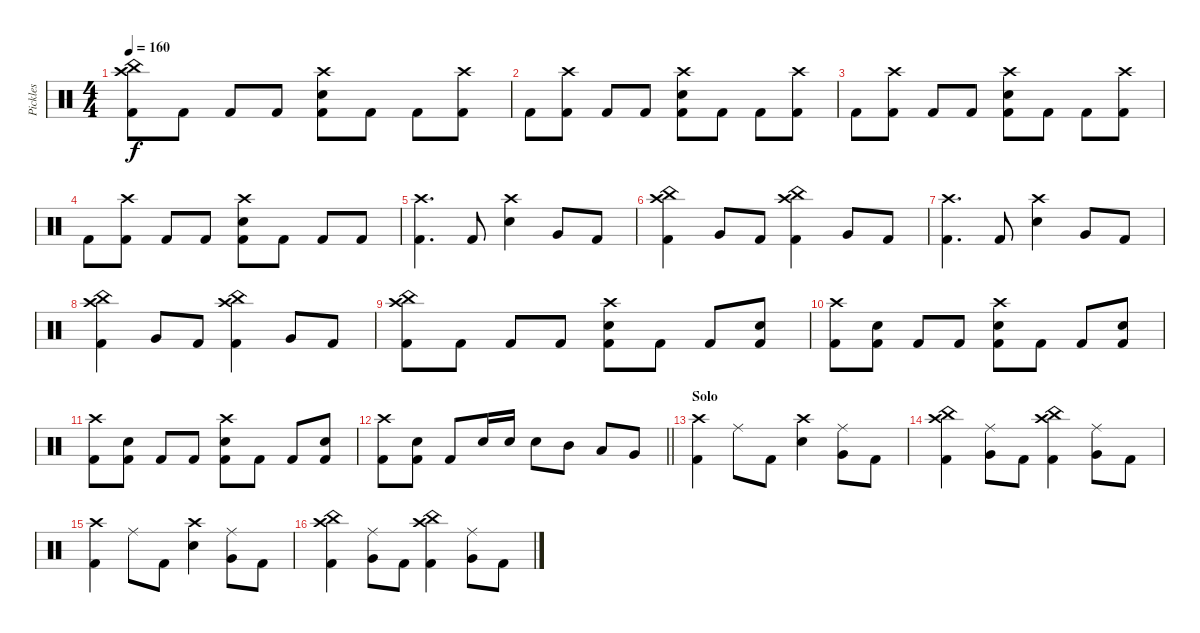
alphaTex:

\track ("Pickles" "Pickles") {instrument percussion}
\staff {score}
\articulation defaults
\ts (4 4)
\tempo 160
\clef neutral
\ks c
("Crash high (hit)" "China (hit)" "Kick (hit) 2").8{dy f} "Kick (hit) 2".8 "Kick (hit) 2".8 "Kick (hit) 2".8 ("Crash high (hit)" "Electric Snare (hit)" "Kick (hit) 2").8 "Kick (hit) 2".8 "Kick (hit) 2".8 ("Crash high (hit)" "Kick (hit) 2").8 |
"Kick (hit) 2".8 ("Crash high (hit)" "Kick (hit) 2").8 "Kick (hit) 2".8 "Kick (hit) 2".8 ("Crash high (hit)" "Electric Snare (hit)" "Kick (hit) 2").8 "Kick (hit) 2".8 "Kick (hit) 2".8 ("Crash high (hit)" "Kick (hit) 2").8 |
"Kick (hit) 2".8 ("Crash high (hit)" "Kick (hit) 2").8 "Kick (hit) 2".8 "Kick (hit) 2".8 ("Crash high (hit)" "Electric Snare (hit)" "Kick (hit) 2").8 "Kick (hit) 2".8 "Kick (hit) 2".8 ("Crash high (hit)" "Kick (hit) 2").8 |
"Kick (hit) 2".8 ("Crash high (hit)" "Kick (hit) 2").8 "Kick (hit) 2".8 "Kick (hit) 2".8 ("Crash high (hit)" "Electric Snare (hit)" "Kick (hit) 2").8 "Kick (hit) 2".8 "Kick (hit) 2".8 "Kick (hit) 2".8 |
("Crash high (hit)" "Kick (hit) 2").4{d} "Kick (hit) 2".8 ("Crash high (hit)" "Electric Snare (hit)").4 "Very Low Tom (hit)".8 "Kick (hit) 2".8 |
("Crash high (hit)" "China (hit)" "Kick (hit) 2").4 "Very Low Tom (hit)".8 "Kick (hit) 2".8 ("Crash high (hit)" "China (hit)" "Kick (hit) 2").4 "Very Low Tom (hit)".8 "Kick (hit) 2".8 |
("Crash high (hit)" "Kick (hit) 2").4{d} "Kick (hit) 2".8 ("Crash high (hit)" "Electric Snare (hit)").4 "Very Low Tom (hit)".8 "Kick (hit) 2".8 |
("Crash high (hit)" "China (hit)" "Kick (hit) 2").4 "Very Low Tom (hit)".8 "Kick (hit) 2".8 ("Crash high (hit)" "China (hit)" "Kick (hit) 2").4 "Very Low Tom (hit)".8 "Kick (hit) 2".8 |
("Crash high (hit)" "China (hit)" "Kick (hit) 2").8 "Kick (hit) 2".8 "Kick (hit) 2".8 "Kick (hit) 2".8 ("Crash high (hit)" "Electric Snare (hit)" "Kick (hit) 2").8 "Kick (hit) 2".8 "Kick (hit) 2".8 ("Electric Snare (hit)" "Kick (hit) 2").8 |
("Crash high (hit)" "Kick (hit) 2").8 ("Electric Snare (hit)" "Kick (hit) 2").8 "Kick (hit) 2".8 "Kick (hit) 2".8 ("Crash high (hit)" "Electric Snare (hit)" "Kick (hit) 2").8 "Kick (hit) 2".8 "Kick (hit) 2".8 ("Electric Snare (hit)" "Kick (hit) 2").8 |
("Crash high (hit)" "Kick (hit) 2").8 ("Electric Snare (hit)" "Kick (hit) 2").8 "Kick (hit) 2".8 "Kick (hit) 2".8 ("Crash high (hit)" "Electric Snare (hit)" "Kick (hit) 2").8 "Kick (hit) 2".8 "Kick (hit) 2".8 ("Electric Snare (hit)" "Kick (hit) 2").8 |
\barLineRight lightlight
("Crash high (hit)" "Kick (hit) 2").8 ("Electric Snare (hit)" "Kick (hit) 2").8 "Kick (hit) 2".8 "Electric Snare (hit)".16 "Electric Snare (hit)".16 "Electric Snare (hit)".8 "Mid Tom (hit)".8 "Low Tom (hit)".8 "Very Low Tom (hit)".8 |
\section ("" "Solo")
("Crash high (hit)" "Kick (hit) 2").4 "Ride (middle)".8 "Kick (hit) 2".8 ("Crash high (hit)" "Electric Snare (hit)").4 ("Ride (middle)" "Very Low Tom (hit)").8 "Kick (hit) 2".8 |
("Crash high (hit)" "China (hit)" "Kick (hit) 2").4 ("Ride (middle)" "Very Low Tom (hit)").8 "Kick (hit) 2".8 ("Crash high (hit)" "China (hit)" "Kick (hit) 2").4 ("Ride (middle)" "Very Low Tom (hit)").8 "Kick (hit) 2".8 |
("Crash high (hit)" "Kick (hit) 2").4 "Ride (middle)".8 "Kick (hit) 2".8 ("Crash high (hit)" "Electric Snare (hit)").4 ("Ride (middle)" "Very Low Tom (hit)").8 "Kick (hit) 2".8 |
("Crash high (hit)" "China (hit)" "Kick (hit) 2").4 ("Ride (middle)" "Very Low Tom (hit)").8 "Kick (hit) 2".8 ("Crash high (hit)" "China (hit)" "Kick (hit) 2").4 ("Ride (middle)" "Very Low Tom (hit)").8 "Kick (hit) 2".8
